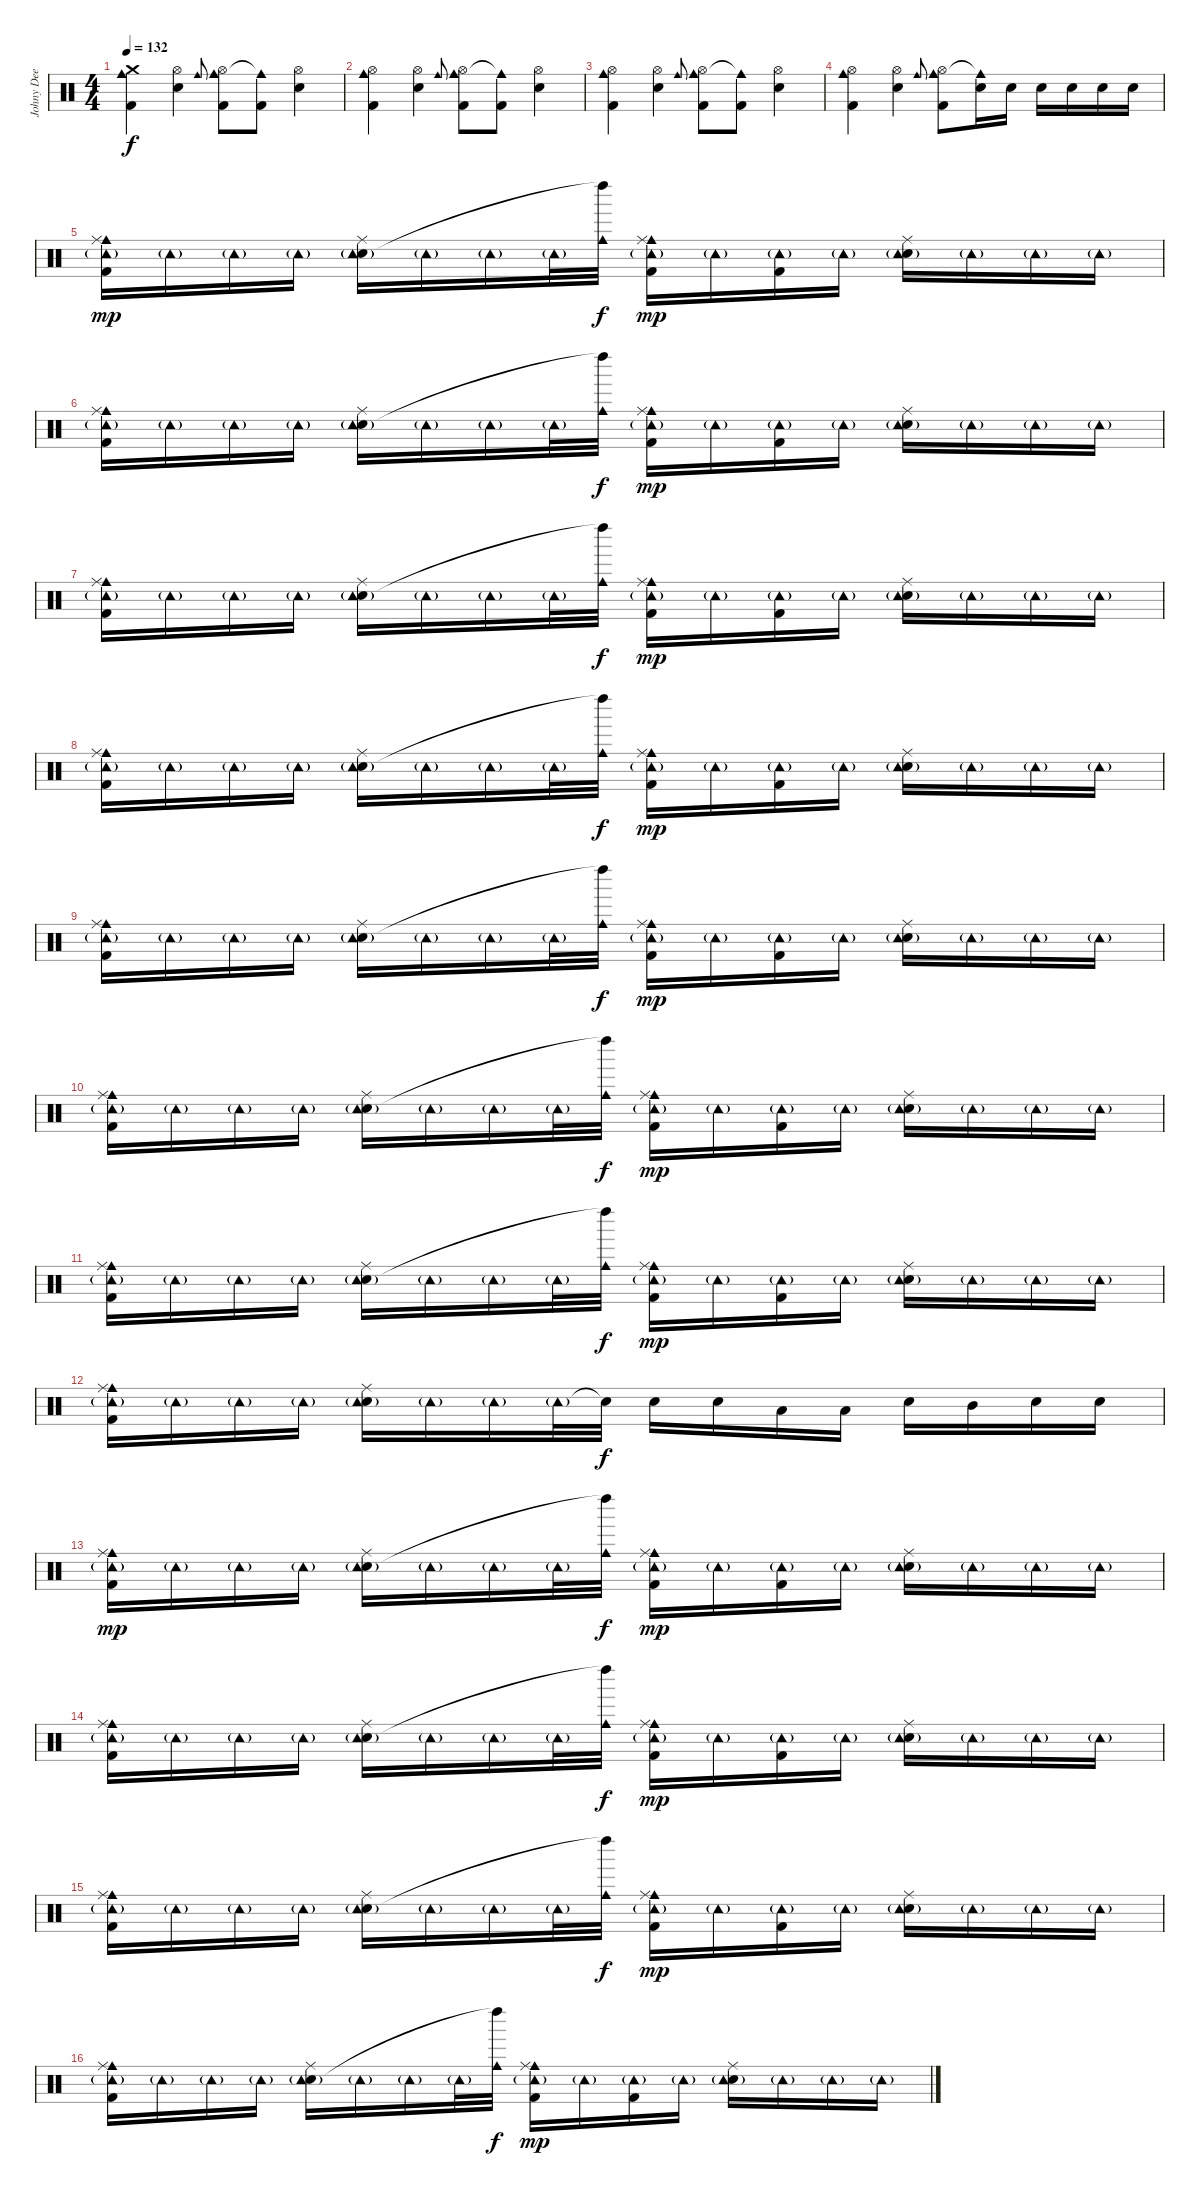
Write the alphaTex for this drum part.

\track ("Johny Dee" "Johny Dee") {instrument percussion}
\staff {score}
\articulation defaults
\ts (4 4)
\tempo 132
\clef neutral
\ks c
("Cowbell medium (hit)" "Kick (hit) 2" "Crash medium (hit)").4{dy f} ("Snare (hit) 2" "Hi-Hat (open)").4 "Cowbell medium (hit)".8{gr onbeat} ("Cowbell medium (hit)" "Kick (hit) 2" "Hi-Hat (open)").8 ("Cowbell medium (hit)"{t} "Kick (hit) 2").8 ("Snare (hit) 2" "Hi-Hat (open)").4 |
("Cowbell medium (hit)" "Kick (hit) 2" "Hi-Hat (open)").4 ("Snare (hit) 2" "Hi-Hat (open)").4 "Cowbell medium (hit)".8{gr onbeat} ("Cowbell medium (hit)" "Kick (hit) 2" "Hi-Hat (open)").8 ("Cowbell medium (hit)"{t} "Kick (hit) 2").8 ("Snare (hit) 2" "Hi-Hat (open)").4 |
("Cowbell medium (hit)" "Kick (hit) 2" "Hi-Hat (open)").4 ("Snare (hit) 2" "Hi-Hat (open)").4 "Cowbell medium (hit)".8{gr onbeat} ("Cowbell medium (hit)" "Kick (hit) 2" "Hi-Hat (open)").8 ("Cowbell medium (hit)"{t} "Kick (hit) 2").8 ("Snare (hit) 2" "Hi-Hat (open)").4 |
("Cowbell medium (hit)" "Kick (hit) 2" "Hi-Hat (open)").4 ("Snare (hit) 2" "Hi-Hat (open)").4 "Cowbell medium (hit)".8{gr onbeat} ("Cowbell medium (hit)" "Kick (hit) 2" "Hi-Hat (open)").8 ("Cowbell medium (hit)"{t} "Snare (hit) 2").16 "Snare (hit) 2".16 "Snare (hit) 2".16 "Snare (hit) 2".16 "Snare (hit) 2".16 "Snare (hit) 2".16 |
("Cowbell medium (hit)" "Ride (middle)" "Tambourine (hit)"{g} "Kick (hit) 2").16{dy mp} "Tambourine (hit)"{g}.16 "Tambourine (hit)"{g}.16 "Tambourine (hit)"{g}.16 ("Ride (middle)" "Snare (hit) 2" "Tambourine (hit)"{g}).16 "Tambourine (hit)"{g}.16 "Tambourine (hit)"{g}.16 "Tambourine (hit)"{g}.32 ("Cowbell medium (hit)" "Left Maraca (hit)"{t}).32{dy f} ("Cowbell medium (hit)" "Ride (middle)" "Tambourine (hit)"{g} "Kick (hit) 2").16{dy mp} "Tambourine (hit)"{g}.16 ("Tambourine (hit)"{g} "Kick (hit) 2").16 "Tambourine (hit)"{g}.16 ("Ride (middle)" "Snare (hit) 2" "Tambourine (hit)"{g}).16 "Tambourine (hit)"{g}.16 "Tambourine (hit)"{g}.16 "Tambourine (hit)"{g}.16 |
("Cowbell medium (hit)" "Ride (middle)" "Tambourine (hit)"{g} "Kick (hit) 2").16 "Tambourine (hit)"{g}.16 "Tambourine (hit)"{g}.16 "Tambourine (hit)"{g}.16 ("Ride (middle)" "Snare (hit) 2" "Tambourine (hit)"{g}).16 "Tambourine (hit)"{g}.16 "Tambourine (hit)"{g}.16 "Tambourine (hit)"{g}.32 ("Cowbell medium (hit)" "Left Maraca (hit)"{t}).32{dy f} ("Cowbell medium (hit)" "Ride (middle)" "Tambourine (hit)"{g} "Kick (hit) 2").16{dy mp} "Tambourine (hit)"{g}.16 ("Tambourine (hit)"{g} "Kick (hit) 2").16 "Tambourine (hit)"{g}.16 ("Ride (middle)" "Snare (hit) 2" "Tambourine (hit)"{g}).16 "Tambourine (hit)"{g}.16 "Tambourine (hit)"{g}.16 "Tambourine (hit)"{g}.16 |
("Cowbell medium (hit)" "Ride (middle)" "Tambourine (hit)"{g} "Kick (hit) 2").16 "Tambourine (hit)"{g}.16 "Tambourine (hit)"{g}.16 "Tambourine (hit)"{g}.16 ("Ride (middle)" "Snare (hit) 2" "Tambourine (hit)"{g}).16 "Tambourine (hit)"{g}.16 "Tambourine (hit)"{g}.16 "Tambourine (hit)"{g}.32 ("Cowbell medium (hit)" "Left Maraca (hit)"{t}).32{dy f} ("Cowbell medium (hit)" "Ride (middle)" "Tambourine (hit)"{g} "Kick (hit) 2").16{dy mp} "Tambourine (hit)"{g}.16 ("Tambourine (hit)"{g} "Kick (hit) 2").16 "Tambourine (hit)"{g}.16 ("Ride (middle)" "Snare (hit) 2" "Tambourine (hit)"{g}).16 "Tambourine (hit)"{g}.16 "Tambourine (hit)"{g}.16 "Tambourine (hit)"{g}.16 |
("Cowbell medium (hit)" "Ride (middle)" "Tambourine (hit)"{g} "Kick (hit) 2").16 "Tambourine (hit)"{g}.16 "Tambourine (hit)"{g}.16 "Tambourine (hit)"{g}.16 ("Ride (middle)" "Snare (hit) 2" "Tambourine (hit)"{g}).16 "Tambourine (hit)"{g}.16 "Tambourine (hit)"{g}.16 "Tambourine (hit)"{g}.32 ("Cowbell medium (hit)" "Left Maraca (hit)"{t}).32{dy f} ("Cowbell medium (hit)" "Ride (middle)" "Tambourine (hit)"{g} "Kick (hit) 2").16{dy mp} "Tambourine (hit)"{g}.16 ("Tambourine (hit)"{g} "Kick (hit) 2").16 "Tambourine (hit)"{g}.16 ("Ride (middle)" "Snare (hit) 2" "Tambourine (hit)"{g}).16 "Tambourine (hit)"{g}.16 "Tambourine (hit)"{g}.16 "Tambourine (hit)"{g}.16 |
("Cowbell medium (hit)" "Ride (middle)" "Tambourine (hit)"{g} "Kick (hit) 2").16 "Tambourine (hit)"{g}.16 "Tambourine (hit)"{g}.16 "Tambourine (hit)"{g}.16 ("Ride (middle)" "Snare (hit) 2" "Tambourine (hit)"{g}).16 "Tambourine (hit)"{g}.16 "Tambourine (hit)"{g}.16 "Tambourine (hit)"{g}.32 ("Cowbell medium (hit)" "Left Maraca (hit)"{t}).32{dy f} ("Cowbell medium (hit)" "Ride (middle)" "Tambourine (hit)"{g} "Kick (hit) 2").16{dy mp} "Tambourine (hit)"{g}.16 ("Tambourine (hit)"{g} "Kick (hit) 2").16 "Tambourine (hit)"{g}.16 ("Ride (middle)" "Snare (hit) 2" "Tambourine (hit)"{g}).16 "Tambourine (hit)"{g}.16 "Tambourine (hit)"{g}.16 "Tambourine (hit)"{g}.16 |
("Cowbell medium (hit)" "Ride (middle)" "Tambourine (hit)"{g} "Kick (hit) 2").16 "Tambourine (hit)"{g}.16 "Tambourine (hit)"{g}.16 "Tambourine (hit)"{g}.16 ("Ride (middle)" "Snare (hit) 2" "Tambourine (hit)"{g}).16 "Tambourine (hit)"{g}.16 "Tambourine (hit)"{g}.16 "Tambourine (hit)"{g}.32 ("Cowbell medium (hit)" "Left Maraca (hit)"{t}).32{dy f} ("Cowbell medium (hit)" "Ride (middle)" "Tambourine (hit)"{g} "Kick (hit) 2").16{dy mp} "Tambourine (hit)"{g}.16 ("Tambourine (hit)"{g} "Kick (hit) 2").16 "Tambourine (hit)"{g}.16 ("Ride (middle)" "Snare (hit) 2" "Tambourine (hit)"{g}).16 "Tambourine (hit)"{g}.16 "Tambourine (hit)"{g}.16 "Tambourine (hit)"{g}.16 |
("Cowbell medium (hit)" "Ride (middle)" "Tambourine (hit)"{g} "Kick (hit) 2").16 "Tambourine (hit)"{g}.16 "Tambourine (hit)"{g}.16 "Tambourine (hit)"{g}.16 ("Ride (middle)" "Snare (hit) 2" "Tambourine (hit)"{g}).16 "Tambourine (hit)"{g}.16 "Tambourine (hit)"{g}.16 "Tambourine (hit)"{g}.32 ("Cowbell medium (hit)" "Left Maraca (hit)"{t}).32{dy f} ("Cowbell medium (hit)" "Ride (middle)" "Tambourine (hit)"{g} "Kick (hit) 2").16{dy mp} "Tambourine (hit)"{g}.16 ("Tambourine (hit)"{g} "Kick (hit) 2").16 "Tambourine (hit)"{g}.16 ("Ride (middle)" "Snare (hit) 2" "Tambourine (hit)"{g}).16 "Tambourine (hit)"{g}.16 "Tambourine (hit)"{g}.16 "Tambourine (hit)"{g}.16 |
("Cowbell medium (hit)" "Ride (middle)" "Tambourine (hit)"{g} "Kick (hit) 2").16 "Tambourine (hit)"{g}.16 "Tambourine (hit)"{g}.16 "Tambourine (hit)"{g}.16 ("Ride (middle)" "Snare (hit) 2" "Tambourine (hit)"{g}).16 "Tambourine (hit)"{g}.16 "Tambourine (hit)"{g}.16 "Tambourine (hit)"{g}.32 "Snare (hit)"{t}.32{dy f} "Snare (hit) 2".16 "Snare (hit) 2".16 "Low Tom (hit)".16 "Low Tom (hit)".16 "Snare (hit) 2".16 "Mid Tom (hit)".16 "Snare (hit) 2".16 "Snare (hit) 2".16 |
("Cowbell medium (hit)" "Ride (middle)" "Tambourine (hit)"{g} "Kick (hit) 2").16{dy mp} "Tambourine (hit)"{g}.16 "Tambourine (hit)"{g}.16 "Tambourine (hit)"{g}.16 ("Ride (middle)" "Snare (hit) 2" "Tambourine (hit)"{g}).16 "Tambourine (hit)"{g}.16 "Tambourine (hit)"{g}.16 "Tambourine (hit)"{g}.32 ("Cowbell medium (hit)" "Left Maraca (hit)"{t}).32{dy f} ("Cowbell medium (hit)" "Ride (middle)" "Tambourine (hit)"{g} "Kick (hit) 2").16{dy mp} "Tambourine (hit)"{g}.16 ("Tambourine (hit)"{g} "Kick (hit) 2").16 "Tambourine (hit)"{g}.16 ("Ride (middle)" "Snare (hit) 2" "Tambourine (hit)"{g}).16 "Tambourine (hit)"{g}.16 "Tambourine (hit)"{g}.16 "Tambourine (hit)"{g}.16 |
("Cowbell medium (hit)" "Ride (middle)" "Tambourine (hit)"{g} "Kick (hit) 2").16 "Tambourine (hit)"{g}.16 "Tambourine (hit)"{g}.16 "Tambourine (hit)"{g}.16 ("Ride (middle)" "Snare (hit) 2" "Tambourine (hit)"{g}).16 "Tambourine (hit)"{g}.16 "Tambourine (hit)"{g}.16 "Tambourine (hit)"{g}.32 ("Cowbell medium (hit)" "Left Maraca (hit)"{t}).32{dy f} ("Cowbell medium (hit)" "Ride (middle)" "Tambourine (hit)"{g} "Kick (hit) 2").16{dy mp} "Tambourine (hit)"{g}.16 ("Tambourine (hit)"{g} "Kick (hit) 2").16 "Tambourine (hit)"{g}.16 ("Ride (middle)" "Snare (hit) 2" "Tambourine (hit)"{g}).16 "Tambourine (hit)"{g}.16 "Tambourine (hit)"{g}.16 "Tambourine (hit)"{g}.16 |
("Cowbell medium (hit)" "Ride (middle)" "Tambourine (hit)"{g} "Kick (hit) 2").16 "Tambourine (hit)"{g}.16 "Tambourine (hit)"{g}.16 "Tambourine (hit)"{g}.16 ("Ride (middle)" "Snare (hit) 2" "Tambourine (hit)"{g}).16 "Tambourine (hit)"{g}.16 "Tambourine (hit)"{g}.16 "Tambourine (hit)"{g}.32 ("Cowbell medium (hit)" "Left Maraca (hit)"{t}).32{dy f} ("Cowbell medium (hit)" "Ride (middle)" "Tambourine (hit)"{g} "Kick (hit) 2").16{dy mp} "Tambourine (hit)"{g}.16 ("Tambourine (hit)"{g} "Kick (hit) 2").16 "Tambourine (hit)"{g}.16 ("Ride (middle)" "Snare (hit) 2" "Tambourine (hit)"{g}).16 "Tambourine (hit)"{g}.16 "Tambourine (hit)"{g}.16 "Tambourine (hit)"{g}.16 |
("Cowbell medium (hit)" "Ride (middle)" "Tambourine (hit)"{g} "Kick (hit) 2").16 "Tambourine (hit)"{g}.16 "Tambourine (hit)"{g}.16 "Tambourine (hit)"{g}.16 ("Ride (middle)" "Snare (hit) 2" "Tambourine (hit)"{g}).16 "Tambourine (hit)"{g}.16 "Tambourine (hit)"{g}.16 "Tambourine (hit)"{g}.32 ("Cowbell medium (hit)" "Left Maraca (hit)"{t}).32{dy f} ("Cowbell medium (hit)" "Ride (middle)" "Tambourine (hit)"{g} "Kick (hit) 2").16{dy mp} "Tambourine (hit)"{g}.16 ("Tambourine (hit)"{g} "Kick (hit) 2").16 "Tambourine (hit)"{g}.16 ("Ride (middle)" "Snare (hit) 2" "Tambourine (hit)"{g}).16 "Tambourine (hit)"{g}.16 "Tambourine (hit)"{g}.16 "Tambourine (hit)"{g}.16
